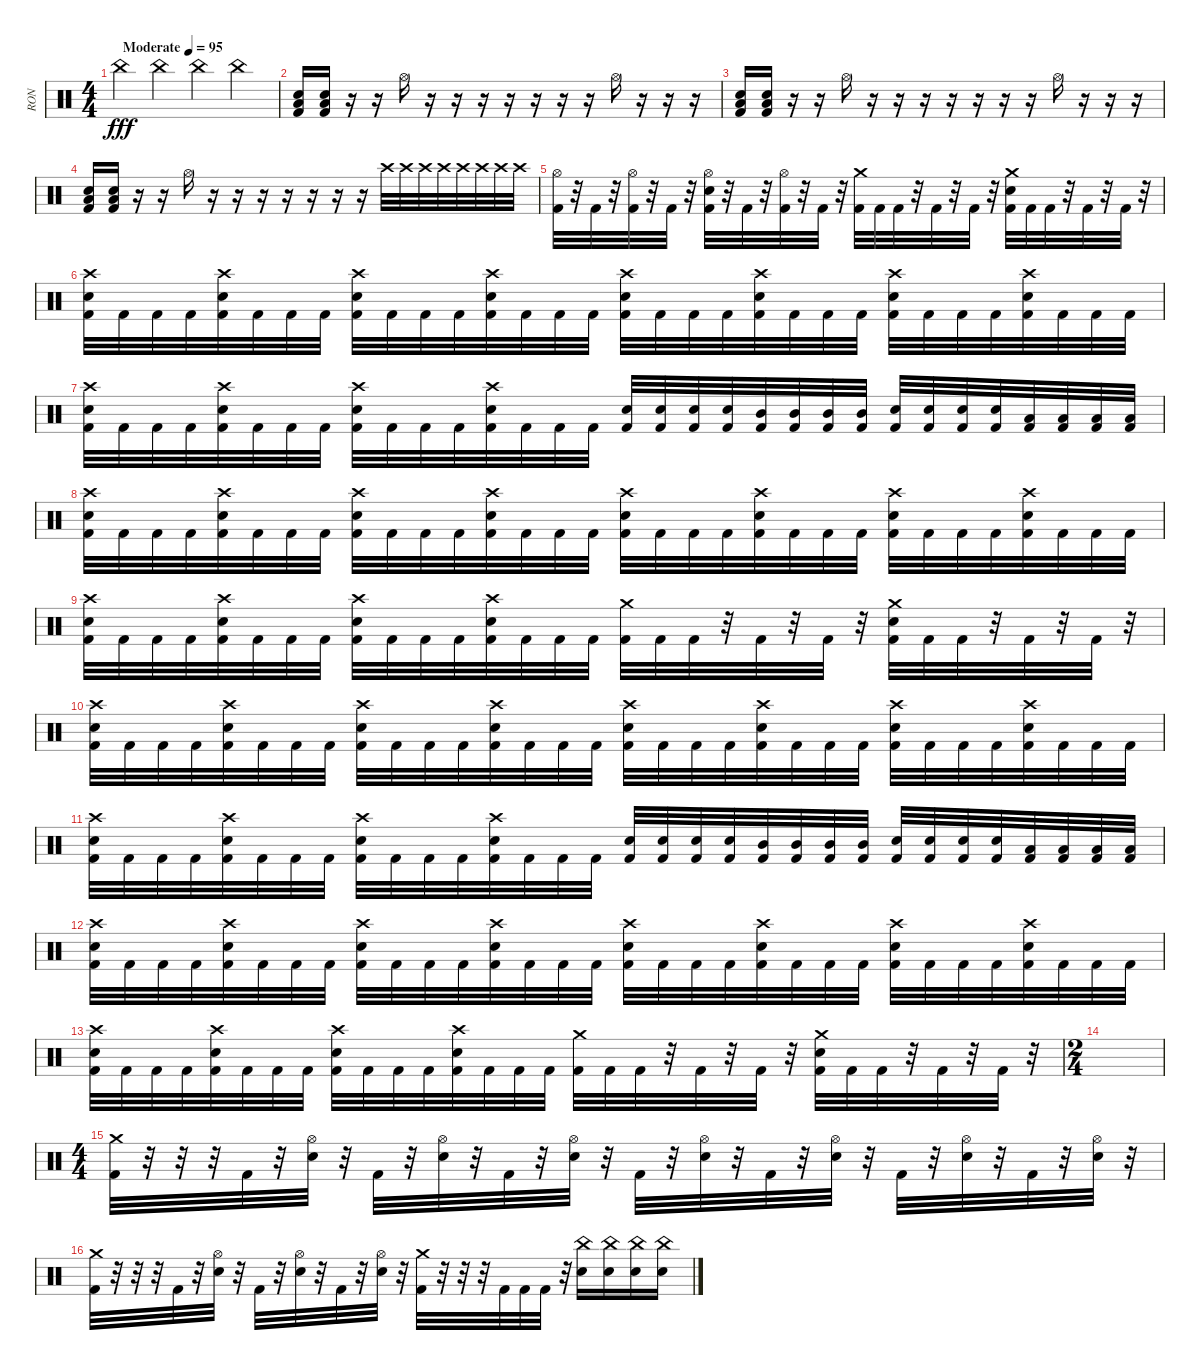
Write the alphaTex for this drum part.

\track ("RON" "RON") {instrument percussion}
\staff {score}
\articulation defaults
\ts (4 4)
\tempo (95 "Moderate")
\clef neutral
\ks c "China (hit)".4{dy fff} "China (hit)".4 "China (hit)".4 "China (hit)".4
|
("Low Floor Tom (hit)" "Electric Snare (hit)" "Kick (hit) 2").16 ("Low Floor Tom (hit)" "Electric Snare (hit)" "Kick (hit) 2").16 r.16 r.16 "Hi-Hat (open)".16 r.16 r.16 r.16 r.16 r.16 r.16 r.16 "Hi-Hat (open)".16 r.16 r.16 r.16 |
("Low Floor Tom (hit)" "Electric Snare (hit)" "Kick (hit) 2").16 ("Low Floor Tom (hit)" "Electric Snare (hit)" "Kick (hit) 2").16 r.16 r.16 "Hi-Hat (open)".16 r.16 r.16 r.16 r.16 r.16 r.16 r.16 "Hi-Hat (open)".16 r.16 r.16 r.16 |
("Low Floor Tom (hit)" "Electric Snare (hit)" "Kick (hit) 2").16 ("Low Floor Tom (hit)" "Electric Snare (hit)" "Kick (hit) 2").16 r.16 r.16 "Hi-Hat (open)".16 r.16 r.16 r.16 r.16 r.16 r.16 r.16 "Crash high (hit)".32 "Crash high (hit)".32 "Crash high (hit)".32 "Crash high (hit)".32 "Crash high (hit)".32 "Crash high (hit)".32 "Crash high (hit)".32 "Crash high (hit)".32 |
("Hi-Hat (open)" "Kick (hit) 2").32 r.32 "Kick (hit) 2".32 r.32 ("Hi-Hat (open)" "Kick (hit) 2").32 r.32 "Kick (hit) 2".32 r.32 ("Hi-Hat (open)" "Electric Snare (hit)" "Kick (hit) 2").32 r.32 "Kick (hit) 2".32 r.32 ("Hi-Hat (open)" "Kick (hit) 2").32 r.32 "Kick (hit) 2".32 r.32 ("Crash medium (hit)" "Kick (hit) 2").32 "Kick (hit) 2".32 "Kick (hit) 2".32 r.32 "Kick (hit) 2".32 r.32 "Kick (hit) 2".32 r.32 ("Crash medium (hit)" "Electric Snare (hit)" "Kick (hit) 2").32 "Kick (hit) 2".32 "Kick (hit) 2".32 r.32 "Kick (hit) 2".32 r.32 "Kick (hit) 2".32 r.32 |
("Crash high (hit)" "Electric Snare (hit)" "Kick (hit) 2").32 "Kick (hit) 2".32 "Kick (hit) 2".32 "Kick (hit) 2".32 ("Crash high (hit)" "Electric Snare (hit)" "Kick (hit) 2").32 "Kick (hit) 2".32 "Kick (hit) 2".32 "Kick (hit) 2".32 ("Crash high (hit)" "Electric Snare (hit)" "Kick (hit) 2").32 "Kick (hit) 2".32 "Kick (hit) 2".32 "Kick (hit) 2".32 ("Crash high (hit)" "Electric Snare (hit)" "Kick (hit) 2").32 "Kick (hit) 2".32 "Kick (hit) 2".32 "Kick (hit) 2".32 ("Crash high (hit)" "Electric Snare (hit)" "Kick (hit) 2").32 "Kick (hit) 2".32 "Kick (hit) 2".32 "Kick (hit) 2".32 ("Crash high (hit)" "Electric Snare (hit)" "Kick (hit) 2").32 "Kick (hit) 2".32 "Kick (hit) 2".32 "Kick (hit) 2".32 ("Crash high (hit)" "Electric Snare (hit)" "Kick (hit) 2").32 "Kick (hit) 2".32 "Kick (hit) 2".32 "Kick (hit) 2".32 ("Crash high (hit)" "Electric Snare (hit)" "Kick (hit) 2").32 "Kick (hit) 2".32 "Kick (hit) 2".32 "Kick (hit) 2".32 |
("Crash high (hit)" "Electric Snare (hit)" "Kick (hit) 2").32 "Kick (hit) 2".32 "Kick (hit) 2".32 "Kick (hit) 2".32 ("Crash high (hit)" "Electric Snare (hit)" "Kick (hit) 2").32 "Kick (hit) 2".32 "Kick (hit) 2".32 "Kick (hit) 2".32 ("Crash high (hit)" "Electric Snare (hit)" "Kick (hit) 2").32 "Kick (hit) 2".32 "Kick (hit) 2".32 "Kick (hit) 2".32 ("Crash high (hit)" "Electric Snare (hit)" "Kick (hit) 2").32 "Kick (hit) 2".32 "Kick (hit) 2".32 "Kick (hit) 2".32 ("Electric Snare (hit)" "Kick (hit) 2").32 ("Electric Snare (hit)" "Kick (hit) 2").32 ("Electric Snare (hit)" "Kick (hit) 2").32 ("Electric Snare (hit)" "Kick (hit) 2").32 ("Mid Tom (hit)" "Kick (hit) 2").32 ("Mid Tom (hit)" "Kick (hit) 2").32 ("Mid Tom (hit)" "Kick (hit) 2").32 ("Mid Tom (hit)" "Kick (hit) 2").32 ("Electric Snare (hit)" "Kick (hit) 2").32 ("Electric Snare (hit)" "Kick (hit) 2").32 ("Electric Snare (hit)" "Kick (hit) 2").32 ("Electric Snare (hit)" "Kick (hit) 2").32 ("Low Tom (hit)" "Kick (hit) 2").32 ("Low Tom (hit)" "Kick (hit) 2").32 ("Low Tom (hit)" "Kick (hit) 2").32 ("Low Tom (hit)" "Kick (hit) 2").32 |
("Crash high (hit)" "Electric Snare (hit)" "Kick (hit) 2").32 "Kick (hit) 2".32 "Kick (hit) 2".32 "Kick (hit) 2".32 ("Crash high (hit)" "Electric Snare (hit)" "Kick (hit) 2").32 "Kick (hit) 2".32 "Kick (hit) 2".32 "Kick (hit) 2".32 ("Crash high (hit)" "Electric Snare (hit)" "Kick (hit) 2").32 "Kick (hit) 2".32 "Kick (hit) 2".32 "Kick (hit) 2".32 ("Crash high (hit)" "Electric Snare (hit)" "Kick (hit) 2").32 "Kick (hit) 2".32 "Kick (hit) 2".32 "Kick (hit) 2".32 ("Crash high (hit)" "Electric Snare (hit)" "Kick (hit) 2").32 "Kick (hit) 2".32 "Kick (hit) 2".32 "Kick (hit) 2".32 ("Crash high (hit)" "Electric Snare (hit)" "Kick (hit) 2").32 "Kick (hit) 2".32 "Kick (hit) 2".32 "Kick (hit) 2".32 ("Crash high (hit)" "Electric Snare (hit)" "Kick (hit) 2").32 "Kick (hit) 2".32 "Kick (hit) 2".32 "Kick (hit) 2".32 ("Crash high (hit)" "Electric Snare (hit)" "Kick (hit) 2").32 "Kick (hit) 2".32 "Kick (hit) 2".32 "Kick (hit) 2".32 |
("Crash high (hit)" "Electric Snare (hit)" "Kick (hit) 2").32 "Kick (hit) 2".32 "Kick (hit) 2".32 "Kick (hit) 2".32 ("Crash high (hit)" "Electric Snare (hit)" "Kick (hit) 2").32 "Kick (hit) 2".32 "Kick (hit) 2".32 "Kick (hit) 2".32 ("Crash high (hit)" "Electric Snare (hit)" "Kick (hit) 2").32 "Kick (hit) 2".32 "Kick (hit) 2".32 "Kick (hit) 2".32 ("Crash high (hit)" "Electric Snare (hit)" "Kick (hit) 2").32 "Kick (hit) 2".32 "Kick (hit) 2".32 "Kick (hit) 2".32 ("Crash medium (hit)" "Kick (hit) 2").32 "Kick (hit) 2".32 "Kick (hit) 2".32 r.32 "Kick (hit) 2".32 r.32 "Kick (hit) 2".32 r.32 ("Crash medium (hit)" "Electric Snare (hit)" "Kick (hit) 2").32 "Kick (hit) 2".32 "Kick (hit) 2".32 r.32 "Kick (hit) 2".32 r.32 "Kick (hit) 2".32 r.32 |
("Crash high (hit)" "Electric Snare (hit)" "Kick (hit) 2").32 "Kick (hit) 2".32 "Kick (hit) 2".32 "Kick (hit) 2".32 ("Crash high (hit)" "Electric Snare (hit)" "Kick (hit) 2").32 "Kick (hit) 2".32 "Kick (hit) 2".32 "Kick (hit) 2".32 ("Crash high (hit)" "Electric Snare (hit)" "Kick (hit) 2").32 "Kick (hit) 2".32 "Kick (hit) 2".32 "Kick (hit) 2".32 ("Crash high (hit)" "Electric Snare (hit)" "Kick (hit) 2").32 "Kick (hit) 2".32 "Kick (hit) 2".32 "Kick (hit) 2".32 ("Crash high (hit)" "Electric Snare (hit)" "Kick (hit) 2").32 "Kick (hit) 2".32 "Kick (hit) 2".32 "Kick (hit) 2".32 ("Crash high (hit)" "Electric Snare (hit)" "Kick (hit) 2").32 "Kick (hit) 2".32 "Kick (hit) 2".32 "Kick (hit) 2".32 ("Crash high (hit)" "Electric Snare (hit)" "Kick (hit) 2").32 "Kick (hit) 2".32 "Kick (hit) 2".32 "Kick (hit) 2".32 ("Crash high (hit)" "Electric Snare (hit)" "Kick (hit) 2").32 "Kick (hit) 2".32 "Kick (hit) 2".32 "Kick (hit) 2".32 |
("Crash high (hit)" "Electric Snare (hit)" "Kick (hit) 2").32 "Kick (hit) 2".32 "Kick (hit) 2".32 "Kick (hit) 2".32 ("Crash high (hit)" "Electric Snare (hit)" "Kick (hit) 2").32 "Kick (hit) 2".32 "Kick (hit) 2".32 "Kick (hit) 2".32 ("Crash high (hit)" "Electric Snare (hit)" "Kick (hit) 2").32 "Kick (hit) 2".32 "Kick (hit) 2".32 "Kick (hit) 2".32 ("Crash high (hit)" "Electric Snare (hit)" "Kick (hit) 2").32 "Kick (hit) 2".32 "Kick (hit) 2".32 "Kick (hit) 2".32 ("Electric Snare (hit)" "Kick (hit) 2").32 ("Electric Snare (hit)" "Kick (hit) 2").32 ("Electric Snare (hit)" "Kick (hit) 2").32 ("Electric Snare (hit)" "Kick (hit) 2").32 ("Mid Tom (hit)" "Kick (hit) 2").32 ("Mid Tom (hit)" "Kick (hit) 2").32 ("Mid Tom (hit)" "Kick (hit) 2").32 ("Mid Tom (hit)" "Kick (hit) 2").32 ("Electric Snare (hit)" "Kick (hit) 2").32 ("Electric Snare (hit)" "Kick (hit) 2").32 ("Electric Snare (hit)" "Kick (hit) 2").32 ("Electric Snare (hit)" "Kick (hit) 2").32 ("Low Tom (hit)" "Kick (hit) 2").32 ("Low Tom (hit)" "Kick (hit) 2").32 ("Low Tom (hit)" "Kick (hit) 2").32 ("Low Tom (hit)" "Kick (hit) 2").32 |
("Crash high (hit)" "Electric Snare (hit)" "Kick (hit) 2").32 "Kick (hit) 2".32 "Kick (hit) 2".32 "Kick (hit) 2".32 ("Crash high (hit)" "Electric Snare (hit)" "Kick (hit) 2").32 "Kick (hit) 2".32 "Kick (hit) 2".32 "Kick (hit) 2".32 ("Crash high (hit)" "Electric Snare (hit)" "Kick (hit) 2").32 "Kick (hit) 2".32 "Kick (hit) 2".32 "Kick (hit) 2".32 ("Crash high (hit)" "Electric Snare (hit)" "Kick (hit) 2").32 "Kick (hit) 2".32 "Kick (hit) 2".32 "Kick (hit) 2".32 ("Crash high (hit)" "Electric Snare (hit)" "Kick (hit) 2").32 "Kick (hit) 2".32 "Kick (hit) 2".32 "Kick (hit) 2".32 ("Crash high (hit)" "Electric Snare (hit)" "Kick (hit) 2").32 "Kick (hit) 2".32 "Kick (hit) 2".32 "Kick (hit) 2".32 ("Crash high (hit)" "Electric Snare (hit)" "Kick (hit) 2").32 "Kick (hit) 2".32 "Kick (hit) 2".32 "Kick (hit) 2".32 ("Crash high (hit)" "Electric Snare (hit)" "Kick (hit) 2").32 "Kick (hit) 2".32 "Kick (hit) 2".32 "Kick (hit) 2".32 |
("Crash high (hit)" "Electric Snare (hit)" "Kick (hit) 2").32 "Kick (hit) 2".32 "Kick (hit) 2".32 "Kick (hit) 2".32 ("Crash high (hit)" "Electric Snare (hit)" "Kick (hit) 2").32 "Kick (hit) 2".32 "Kick (hit) 2".32 "Kick (hit) 2".32 ("Crash high (hit)" "Electric Snare (hit)" "Kick (hit) 2").32 "Kick (hit) 2".32 "Kick (hit) 2".32 "Kick (hit) 2".32 ("Crash high (hit)" "Electric Snare (hit)" "Kick (hit) 2").32 "Kick (hit) 2".32 "Kick (hit) 2".32 "Kick (hit) 2".32 ("Crash medium (hit)" "Kick (hit) 2").32 "Kick (hit) 2".32 "Kick (hit) 2".32 r.32 "Kick (hit) 2".32 r.32 "Kick (hit) 2".32 r.32 ("Crash medium (hit)" "Electric Snare (hit)" "Kick (hit) 2").32 "Kick (hit) 2".32 "Kick (hit) 2".32 r.32 "Kick (hit) 2".32 r.32 "Kick (hit) 2".32 r.32 |
\ts (2 4)
|
\ts (4 4)
("Crash medium (hit)" "Kick (hit) 2").32 r.32 r.32 r.32 "Kick (hit) 2".32 r.32 ("Hi-Hat (open)" "Electric Snare (hit)").32 r.32 "Kick (hit) 2".32 r.32 ("Hi-Hat (open)" "Electric Snare (hit)").32 r.32 "Kick (hit) 2".32 r.32 ("Hi-Hat (open)" "Electric Snare (hit)").32 r.32 "Kick (hit) 2".32 r.32 ("Hi-Hat (open)" "Electric Snare (hit)").32 r.32 "Kick (hit) 2".32 r.32 ("Hi-Hat (open)" "Electric Snare (hit)").32 r.32 "Kick (hit) 2".32 r.32 ("Hi-Hat (open)" "Electric Snare (hit)").32 r.32 "Kick (hit) 2".32 r.32 ("Hi-Hat (open)" "Electric Snare (hit)").32 r.32 |
("Crash medium (hit)" "Kick (hit) 2").32 r.32 r.32 r.32 "Kick (hit) 2".32 r.32 ("Hi-Hat (open)" "Electric Snare (hit)").32 r.32 "Kick (hit) 2".32 r.32 ("Hi-Hat (open)" "Electric Snare (hit)").32 r.32 "Kick (hit) 2".32 r.32 ("Hi-Hat (open)" "Electric Snare (hit)").32 r.32 ("Crash medium (hit)" "Kick (hit) 2").32 r.32 r.32 r.32 "Kick (hit) 2".32 "Kick (hit) 2".32 "Kick (hit) 2".32 r.32 ("China (hit)" "Electric Snare (hit)").16 ("China (hit)" "Electric Snare (hit)").16 ("China (hit)" "Electric Snare (hit)").16 ("China (hit)" "Electric Snare (hit)").16
